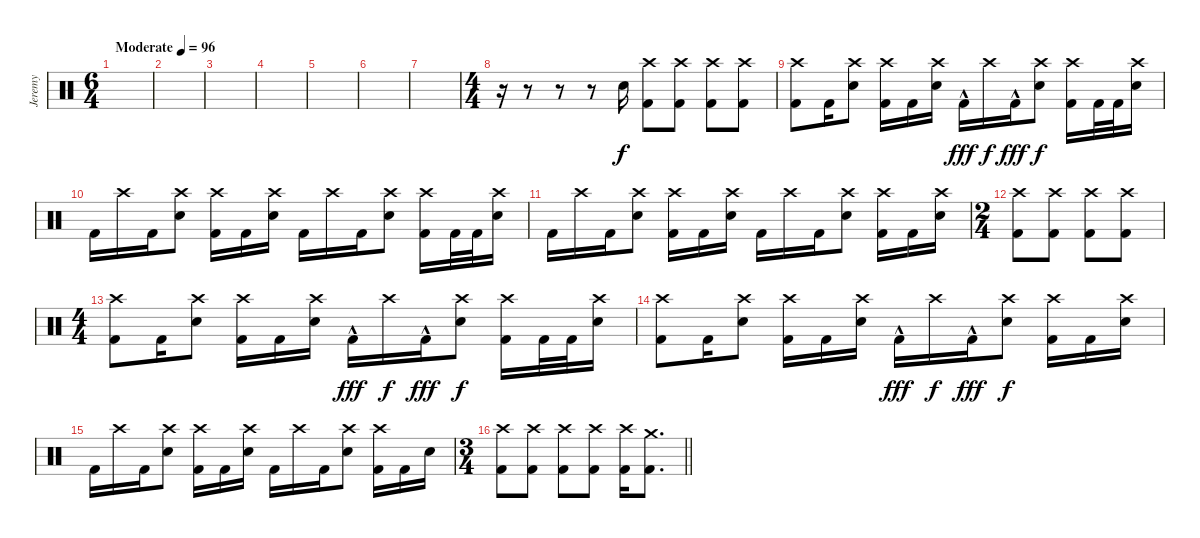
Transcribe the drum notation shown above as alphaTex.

\track ("Jeremy" "Jeremy") {instrument percussion}
\staff {score}
\articulation defaults
\ts (6 4)
\tempo (96 "Moderate")
\clef neutral
\ks c
|
|
|
|
|
|
|
\ts (4 4)
r.16 r.8 r.8 r.8 "Snare (hit) 2".16 ("Crash high (hit)" "Kick (hit) 2").8 ("Crash high (hit)" "Kick (hit) 2").8 ("Crash high (hit)" "Kick (hit) 2").8 ("Crash high (hit)" "Kick (hit) 2").8 |
("Crash high (hit)" "Kick (hit) 2").8 "Kick (hit) 2".16 ("Crash high (hit)" "Snare (hit) 2").8 ("Crash high (hit)" "Kick (hit) 2").16 "Kick (hit) 2".16 ("Crash high (hit)" "Snare (hit) 2").16 "Kick (hit) 2"{hac}.16{dy fff} "Crash high (hit)".16{dy f} "Kick (hit) 2"{hac}.16{dy fff} ("Crash high (hit)" "Snare (hit) 2").8{dy f} ("Crash high (hit)" "Kick (hit) 2").16 "Kick (hit) 2".32 "Kick (hit) 2".32 ("Crash high (hit)" "Snare (hit) 2").16 |
"Kick (hit) 2".16 "Crash high (hit)".16 "Kick (hit) 2".16 ("Crash high (hit)" "Snare (hit) 2").8 ("Crash high (hit)" "Kick (hit) 2").16 "Kick (hit) 2".16 ("Crash high (hit)" "Snare (hit) 2").16 "Kick (hit) 2".16 "Crash high (hit)".16 "Kick (hit) 2".16 ("Crash high (hit)" "Snare (hit) 2").8 ("Crash high (hit)" "Kick (hit) 2").16 "Kick (hit) 2".32 "Kick (hit) 2".32 ("Crash high (hit)" "Snare (hit) 2").16 |
"Kick (hit) 2".16 "Crash high (hit)".16 "Kick (hit) 2".16 ("Crash high (hit)" "Snare (hit) 2").8 ("Crash high (hit)" "Kick (hit) 2").16 "Kick (hit) 2".16 ("Crash high (hit)" "Snare (hit) 2").16 "Kick (hit) 2".16 "Crash high (hit)".16 "Kick (hit) 2".16 ("Crash high (hit)" "Snare (hit) 2").8 ("Crash high (hit)" "Kick (hit) 2").16 "Kick (hit) 2".16 ("Crash high (hit)" "Snare (hit) 2").16 |
\ts (2 4)
("Crash high (hit)" "Kick (hit) 2").8 ("Crash high (hit)" "Kick (hit) 2").8 ("Crash high (hit)" "Kick (hit) 2").8 ("Crash high (hit)" "Kick (hit) 2").8 |
\ts (4 4)
("Crash high (hit)" "Kick (hit) 2").8 "Kick (hit) 2".16 ("Crash high (hit)" "Snare (hit) 2").8 ("Crash high (hit)" "Kick (hit) 2").16 "Kick (hit) 2".16 ("Crash high (hit)" "Snare (hit) 2").16 "Kick (hit) 2"{hac}.16{dy fff} "Crash high (hit)".16{dy f} "Kick (hit) 2"{hac}.16{dy fff} ("Crash high (hit)" "Snare (hit) 2").8{dy f} ("Crash high (hit)" "Kick (hit) 2").16 "Kick (hit) 2".32 "Kick (hit) 2".32 ("Crash high (hit)" "Snare (hit) 2").16 |
("Crash high (hit)" "Kick (hit) 2").8 "Kick (hit) 2".16 ("Crash high (hit)" "Snare (hit) 2").8 ("Crash high (hit)" "Kick (hit) 2").16 "Kick (hit) 2".16 ("Crash high (hit)" "Snare (hit) 2").16 "Kick (hit) 2"{hac}.16{dy fff} "Crash high (hit)".16{dy f} "Kick (hit) 2"{hac}.16{dy fff} ("Crash high (hit)" "Snare (hit) 2").8{dy f} ("Crash high (hit)" "Kick (hit) 2").16 "Kick (hit) 2".16 ("Crash high (hit)" "Snare (hit) 2").16 |
"Kick (hit) 2".16 "Crash high (hit)".16 "Kick (hit) 2".16 ("Crash high (hit)" "Snare (hit) 2").8 ("Crash high (hit)" "Kick (hit) 2").16 "Kick (hit) 2".16 ("Crash high (hit)" "Snare (hit) 2").16 "Kick (hit) 2".16 "Crash high (hit)".16 "Kick (hit) 2".16 ("Crash high (hit)" "Snare (hit) 2").8 ("Crash high (hit)" "Kick (hit) 2").16 "Kick (hit) 2".16 "Snare (hit) 2".16 |
\ts (3 4)
\barLineRight lightlight
("Crash high (hit)" "Kick (hit) 2").8 ("Crash high (hit)" "Kick (hit) 2").8 ("Crash high (hit)" "Kick (hit) 2").8 ("Crash high (hit)" "Kick (hit) 2").8 ("Crash high (hit)" "Kick (hit) 2").16 ("Crash medium (hit)" "Kick (hit) 2").8{d}
